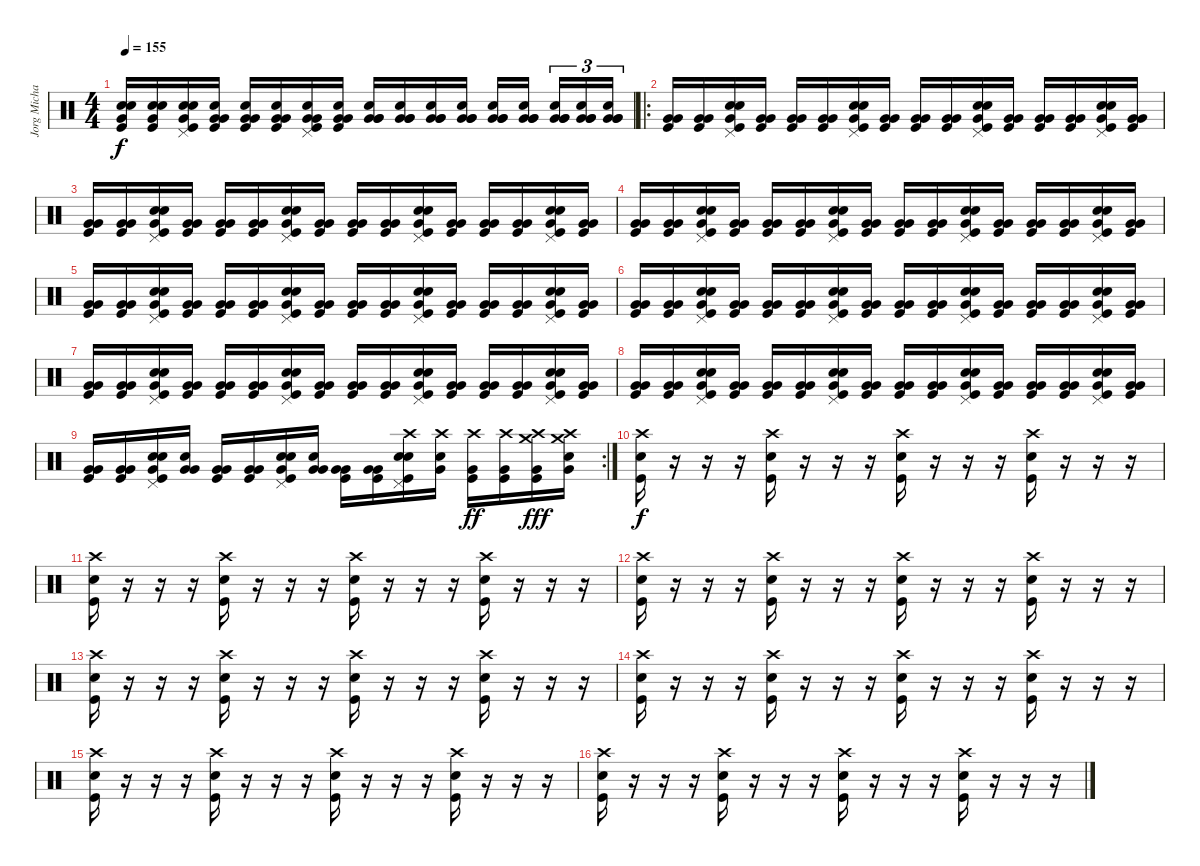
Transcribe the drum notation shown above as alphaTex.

\track ("Jorg Michael" "Jorg Micha") {instrument percussion}
\staff {score}
\articulation defaults
\ts (4 4)
\tempo 155
\clef neutral
\ks c
("Snare (hit) 2" "Snare (hit) 2" "Very Low Tom (hit)" "Kick (hit)").16{dy f} ("Snare (hit) 2" "Snare (hit) 2" "Very Low Tom (hit)" "Kick (hit)").16 ("Snare (hit) 2" "Snare (hit) 2" "Pedal Hi-Hat (hit)" "Very Low Tom (hit)" "Kick (hit)").16 ("Very Low Tom (hit)" "Snare (hit) 2" "Very Low Tom (hit)" "Kick (hit)").16 ("Very Low Tom (hit)" "Snare (hit) 2" "Very Low Tom (hit)" "Kick (hit)").16 ("Very Low Tom (hit)" "Snare (hit) 2" "Very Low Tom (hit)" "Kick (hit)").16 ("Very Low Tom (hit)" "Snare (hit) 2" "Pedal Hi-Hat (hit)" "Very Low Tom (hit)" "Kick (hit)").16 ("Very Low Tom (hit)" "Snare (hit) 2" "Very Low Tom (hit)" "Kick (hit)").16 ("Very Low Tom (hit)" "Snare (hit) 2" "Very Low Tom (hit)" "Very Low Tom (hit)").16 ("Very Low Tom (hit)" "Snare (hit) 2" "Very Low Tom (hit)" "Very Low Tom (hit)").16 ("Very Low Tom (hit)" "Snare (hit) 2" "Very Low Tom (hit)" "Very Low Tom (hit)").16 ("Very Low Tom (hit)" "Snare (hit) 2" "Very Low Tom (hit)" "Very Low Tom (hit)").16 ("Very Low Tom (hit)" "Snare (hit) 2" "Very Low Tom (hit)" "Very Low Tom (hit)").16 ("Very Low Tom (hit)" "Snare (hit) 2" "Very Low Tom (hit)" "Very Low Tom (hit)").16 ("Very Low Tom (hit)" "Snare (hit) 2" "Very Low Tom (hit)" "Very Low Tom (hit)").16{tu (3 2)} ("Very Low Tom (hit)" "Snare (hit) 2" "Very Low Tom (hit)" "Very Low Tom (hit)").16{tu (3 2)} ("Very Low Tom (hit)" "Snare (hit) 2" "Very Low Tom (hit)" "Very Low Tom (hit)").16{tu (3 2)} |
\ro
("Very Low Tom (hit)" "Very Low Tom (hit)" "Kick (hit)").16 ("Very Low Tom (hit)" "Very Low Tom (hit)" "Kick (hit)").16 ("Snare (hit) 2" "Snare (hit) 2" "Pedal Hi-Hat (hit)" "Very Low Tom (hit)" "Kick (hit)").16 ("Very Low Tom (hit)" "Very Low Tom (hit)" "Kick (hit)").16 ("Very Low Tom (hit)" "Very Low Tom (hit)" "Kick (hit)").16 ("Very Low Tom (hit)" "Very Low Tom (hit)" "Kick (hit)").16 ("Snare (hit) 2" "Snare (hit) 2" "Pedal Hi-Hat (hit)" "Very Low Tom (hit)" "Kick (hit)").16 ("Very Low Tom (hit)" "Very Low Tom (hit)" "Kick (hit)").16 ("Very Low Tom (hit)" "Very Low Tom (hit)" "Kick (hit)").16 ("Very Low Tom (hit)" "Very Low Tom (hit)" "Kick (hit)").16 ("Snare (hit) 2" "Snare (hit) 2" "Pedal Hi-Hat (hit)" "Very Low Tom (hit)" "Kick (hit)").16 ("Very Low Tom (hit)" "Very Low Tom (hit)" "Kick (hit)").16 ("Very Low Tom (hit)" "Very Low Tom (hit)" "Kick (hit)").16 ("Very Low Tom (hit)" "Very Low Tom (hit)" "Kick (hit)").16 ("Snare (hit) 2" "Snare (hit) 2" "Pedal Hi-Hat (hit)" "Very Low Tom (hit)" "Kick (hit)").16 ("Very Low Tom (hit)" "Very Low Tom (hit)" "Kick (hit)").16 |
("Very Low Tom (hit)" "Very Low Tom (hit)" "Kick (hit)").16 ("Very Low Tom (hit)" "Very Low Tom (hit)" "Kick (hit)").16 ("Snare (hit) 2" "Snare (hit) 2" "Pedal Hi-Hat (hit)" "Very Low Tom (hit)" "Kick (hit)").16 ("Very Low Tom (hit)" "Very Low Tom (hit)" "Kick (hit)").16 ("Very Low Tom (hit)" "Very Low Tom (hit)" "Kick (hit)").16 ("Very Low Tom (hit)" "Very Low Tom (hit)" "Kick (hit)").16 ("Snare (hit) 2" "Snare (hit) 2" "Pedal Hi-Hat (hit)" "Very Low Tom (hit)" "Kick (hit)").16 ("Very Low Tom (hit)" "Very Low Tom (hit)" "Kick (hit)").16 ("Very Low Tom (hit)" "Very Low Tom (hit)" "Kick (hit)").16 ("Very Low Tom (hit)" "Very Low Tom (hit)" "Kick (hit)").16 ("Snare (hit) 2" "Snare (hit) 2" "Pedal Hi-Hat (hit)" "Very Low Tom (hit)" "Kick (hit)").16 ("Very Low Tom (hit)" "Very Low Tom (hit)" "Kick (hit)").16 ("Very Low Tom (hit)" "Very Low Tom (hit)" "Kick (hit)").16 ("Very Low Tom (hit)" "Very Low Tom (hit)" "Kick (hit)").16 ("Snare (hit) 2" "Snare (hit) 2" "Pedal Hi-Hat (hit)" "Very Low Tom (hit)" "Kick (hit)").16 ("Very Low Tom (hit)" "Very Low Tom (hit)" "Kick (hit)").16 |
("Very Low Tom (hit)" "Very Low Tom (hit)" "Kick (hit)").16 ("Very Low Tom (hit)" "Very Low Tom (hit)" "Kick (hit)").16 ("Snare (hit) 2" "Snare (hit) 2" "Pedal Hi-Hat (hit)" "Very Low Tom (hit)" "Kick (hit)").16 ("Very Low Tom (hit)" "Very Low Tom (hit)" "Kick (hit)").16 ("Very Low Tom (hit)" "Very Low Tom (hit)" "Kick (hit)").16 ("Very Low Tom (hit)" "Very Low Tom (hit)" "Kick (hit)").16 ("Snare (hit) 2" "Snare (hit) 2" "Pedal Hi-Hat (hit)" "Very Low Tom (hit)" "Kick (hit)").16 ("Very Low Tom (hit)" "Very Low Tom (hit)" "Kick (hit)").16 ("Very Low Tom (hit)" "Very Low Tom (hit)" "Kick (hit)").16 ("Very Low Tom (hit)" "Very Low Tom (hit)" "Kick (hit)").16 ("Snare (hit) 2" "Snare (hit) 2" "Pedal Hi-Hat (hit)" "Very Low Tom (hit)" "Kick (hit)").16 ("Very Low Tom (hit)" "Very Low Tom (hit)" "Kick (hit)").16 ("Very Low Tom (hit)" "Very Low Tom (hit)" "Kick (hit)").16 ("Very Low Tom (hit)" "Very Low Tom (hit)" "Kick (hit)").16 ("Snare (hit) 2" "Snare (hit) 2" "Pedal Hi-Hat (hit)" "Very Low Tom (hit)" "Kick (hit)").16 ("Very Low Tom (hit)" "Very Low Tom (hit)" "Kick (hit)").16 |
("Very Low Tom (hit)" "Very Low Tom (hit)" "Kick (hit)").16 ("Very Low Tom (hit)" "Very Low Tom (hit)" "Kick (hit)").16 ("Snare (hit) 2" "Snare (hit) 2" "Pedal Hi-Hat (hit)" "Very Low Tom (hit)" "Kick (hit)").16 ("Very Low Tom (hit)" "Very Low Tom (hit)" "Kick (hit)").16 ("Very Low Tom (hit)" "Very Low Tom (hit)" "Kick (hit)").16 ("Very Low Tom (hit)" "Very Low Tom (hit)" "Kick (hit)").16 ("Snare (hit) 2" "Snare (hit) 2" "Pedal Hi-Hat (hit)" "Very Low Tom (hit)" "Kick (hit)").16 ("Very Low Tom (hit)" "Very Low Tom (hit)" "Kick (hit)").16 ("Very Low Tom (hit)" "Very Low Tom (hit)" "Kick (hit)").16 ("Very Low Tom (hit)" "Very Low Tom (hit)" "Kick (hit)").16 ("Snare (hit) 2" "Snare (hit) 2" "Pedal Hi-Hat (hit)" "Very Low Tom (hit)" "Kick (hit)").16 ("Very Low Tom (hit)" "Very Low Tom (hit)" "Kick (hit)").16 ("Very Low Tom (hit)" "Very Low Tom (hit)" "Kick (hit)").16 ("Very Low Tom (hit)" "Very Low Tom (hit)" "Kick (hit)").16 ("Snare (hit) 2" "Snare (hit) 2" "Pedal Hi-Hat (hit)" "Very Low Tom (hit)" "Kick (hit)").16 ("Very Low Tom (hit)" "Very Low Tom (hit)" "Kick (hit)").16 |
("Very Low Tom (hit)" "Very Low Tom (hit)" "Kick (hit)").16 ("Very Low Tom (hit)" "Very Low Tom (hit)" "Kick (hit)").16 ("Snare (hit) 2" "Snare (hit) 2" "Pedal Hi-Hat (hit)" "Very Low Tom (hit)" "Kick (hit)").16 ("Very Low Tom (hit)" "Very Low Tom (hit)" "Kick (hit)").16 ("Very Low Tom (hit)" "Very Low Tom (hit)" "Kick (hit)").16 ("Very Low Tom (hit)" "Very Low Tom (hit)" "Kick (hit)").16 ("Snare (hit) 2" "Snare (hit) 2" "Pedal Hi-Hat (hit)" "Very Low Tom (hit)" "Kick (hit)").16 ("Very Low Tom (hit)" "Very Low Tom (hit)" "Kick (hit)").16 ("Very Low Tom (hit)" "Very Low Tom (hit)" "Kick (hit)").16 ("Very Low Tom (hit)" "Very Low Tom (hit)" "Kick (hit)").16 ("Snare (hit) 2" "Snare (hit) 2" "Pedal Hi-Hat (hit)" "Very Low Tom (hit)" "Kick (hit)").16 ("Very Low Tom (hit)" "Very Low Tom (hit)" "Kick (hit)").16 ("Very Low Tom (hit)" "Very Low Tom (hit)" "Kick (hit)").16 ("Very Low Tom (hit)" "Very Low Tom (hit)" "Kick (hit)").16 ("Snare (hit) 2" "Snare (hit) 2" "Pedal Hi-Hat (hit)" "Very Low Tom (hit)" "Kick (hit)").16 ("Very Low Tom (hit)" "Very Low Tom (hit)" "Kick (hit)").16 |
("Very Low Tom (hit)" "Very Low Tom (hit)" "Kick (hit)").16 ("Very Low Tom (hit)" "Very Low Tom (hit)" "Kick (hit)").16 ("Snare (hit) 2" "Snare (hit) 2" "Pedal Hi-Hat (hit)" "Very Low Tom (hit)" "Kick (hit)").16 ("Very Low Tom (hit)" "Very Low Tom (hit)" "Kick (hit)").16 ("Very Low Tom (hit)" "Very Low Tom (hit)" "Kick (hit)").16 ("Very Low Tom (hit)" "Very Low Tom (hit)" "Kick (hit)").16 ("Snare (hit) 2" "Snare (hit) 2" "Pedal Hi-Hat (hit)" "Very Low Tom (hit)" "Kick (hit)").16 ("Very Low Tom (hit)" "Very Low Tom (hit)" "Kick (hit)").16 ("Very Low Tom (hit)" "Very Low Tom (hit)" "Kick (hit)").16 ("Very Low Tom (hit)" "Very Low Tom (hit)" "Kick (hit)").16 ("Snare (hit) 2" "Snare (hit) 2" "Pedal Hi-Hat (hit)" "Very Low Tom (hit)" "Kick (hit)").16 ("Very Low Tom (hit)" "Very Low Tom (hit)" "Kick (hit)").16 ("Very Low Tom (hit)" "Very Low Tom (hit)" "Kick (hit)").16 ("Very Low Tom (hit)" "Very Low Tom (hit)" "Kick (hit)").16 ("Snare (hit) 2" "Snare (hit) 2" "Pedal Hi-Hat (hit)" "Very Low Tom (hit)" "Kick (hit)").16 ("Very Low Tom (hit)" "Very Low Tom (hit)" "Kick (hit)").16 |
("Very Low Tom (hit)" "Very Low Tom (hit)" "Kick (hit)").16 ("Very Low Tom (hit)" "Very Low Tom (hit)" "Kick (hit)").16 ("Snare (hit) 2" "Snare (hit) 2" "Pedal Hi-Hat (hit)" "Very Low Tom (hit)" "Kick (hit)").16 ("Very Low Tom (hit)" "Very Low Tom (hit)" "Kick (hit)").16 ("Very Low Tom (hit)" "Very Low Tom (hit)" "Kick (hit)").16 ("Very Low Tom (hit)" "Very Low Tom (hit)" "Kick (hit)").16 ("Snare (hit) 2" "Snare (hit) 2" "Pedal Hi-Hat (hit)" "Very Low Tom (hit)" "Kick (hit)").16 ("Very Low Tom (hit)" "Very Low Tom (hit)" "Kick (hit)").16 ("Very Low Tom (hit)" "Very Low Tom (hit)" "Kick (hit)").16 ("Very Low Tom (hit)" "Very Low Tom (hit)" "Kick (hit)").16 ("Snare (hit) 2" "Snare (hit) 2" "Pedal Hi-Hat (hit)" "Very Low Tom (hit)" "Kick (hit)").16 ("Very Low Tom (hit)" "Very Low Tom (hit)" "Kick (hit)").16 ("Very Low Tom (hit)" "Very Low Tom (hit)" "Kick (hit)").16 ("Very Low Tom (hit)" "Very Low Tom (hit)" "Kick (hit)").16 ("Snare (hit) 2" "Snare (hit) 2" "Pedal Hi-Hat (hit)" "Very Low Tom (hit)" "Kick (hit)").16 ("Very Low Tom (hit)" "Very Low Tom (hit)" "Kick (hit)").16 |
\rc 2
("Very Low Tom (hit)" "Very Low Tom (hit)" "Kick (hit)").16 ("Very Low Tom (hit)" "Very Low Tom (hit)" "Kick (hit)").16 ("Snare (hit) 2" "Snare (hit) 2" "Pedal Hi-Hat (hit)" "Very Low Tom (hit)" "Kick (hit)").16 ("Very Low Tom (hit)" "Very Low Tom (hit)" "Snare (hit) 2").16 ("Very Low Tom (hit)" "Very Low Tom (hit)" "Kick (hit)").16 ("Very Low Tom (hit)" "Very Low Tom (hit)" "Kick (hit)").16 ("Snare (hit) 2" "Snare (hit) 2" "Pedal Hi-Hat (hit)" "Very Low Tom (hit)" "Kick (hit)").16 ("Very Low Tom (hit)" "Very Low Tom (hit)" "Snare (hit) 2").16 ("Very Low Tom (hit)" "Very Low Tom (hit)" "Kick (hit)").16 ("Very Low Tom (hit)" "Very Low Tom (hit)" "Kick (hit)").16 ("Snare (hit) 2" "Snare (hit) 2" "Pedal Hi-Hat (hit)" "Crash high (hit)" "Kick (hit)").16 ("Very Low Tom (hit)" "Crash high (hit)" "Snare (hit) 2").16 ("Very Low Tom (hit)" "Crash high (hit)" "Kick (hit)").16{dy ff} ("Very Low Tom (hit)" "Crash high (hit)" "Kick (hit)").16 ("Very Low Tom (hit)" "Crash medium (hit)" "Crash high (hit)" "Kick (hit)").16{dy fff} ("Very Low Tom (hit)" "Crash medium (hit)" "Crash high (hit)" "Snare (hit) 2").16 |
("Crash high (hit)" "Snare (hit) 2" "Kick (hit)").16{dy f} r.16 r.16 r.16 ("Crash high (hit)" "Snare (hit) 2" "Kick (hit)").16 r.16 r.16 r.16 ("Crash high (hit)" "Snare (hit) 2" "Kick (hit)").16 r.16 r.16 r.16 ("Crash high (hit)" "Snare (hit) 2" "Kick (hit)").16 r.16 r.16 r.16 |
("Crash high (hit)" "Snare (hit) 2" "Kick (hit)").16 r.16 r.16 r.16 ("Crash high (hit)" "Snare (hit) 2" "Kick (hit)").16 r.16 r.16 r.16 ("Crash high (hit)" "Snare (hit) 2" "Kick (hit)").16 r.16 r.16 r.16 ("Crash high (hit)" "Snare (hit) 2" "Kick (hit)").16 r.16 r.16 r.16 |
("Crash high (hit)" "Snare (hit) 2" "Kick (hit)").16 r.16 r.16 r.16 ("Crash high (hit)" "Snare (hit) 2" "Kick (hit)").16 r.16 r.16 r.16 ("Crash high (hit)" "Snare (hit) 2" "Kick (hit)").16 r.16 r.16 r.16 ("Crash high (hit)" "Snare (hit) 2" "Kick (hit)").16 r.16 r.16 r.16 |
("Crash high (hit)" "Snare (hit) 2" "Kick (hit)").16 r.16 r.16 r.16 ("Crash high (hit)" "Snare (hit) 2" "Kick (hit)").16 r.16 r.16 r.16 ("Crash high (hit)" "Snare (hit) 2" "Kick (hit)").16 r.16 r.16 r.16 ("Crash high (hit)" "Snare (hit) 2" "Kick (hit)").16 r.16 r.16 r.16 |
("Crash high (hit)" "Snare (hit) 2" "Kick (hit)").16 r.16 r.16 r.16 ("Crash high (hit)" "Snare (hit) 2" "Kick (hit)").16 r.16 r.16 r.16 ("Crash high (hit)" "Snare (hit) 2" "Kick (hit)").16 r.16 r.16 r.16 ("Crash high (hit)" "Snare (hit) 2" "Kick (hit)").16 r.16 r.16 r.16 |
("Crash high (hit)" "Snare (hit) 2" "Kick (hit)").16 r.16 r.16 r.16 ("Crash high (hit)" "Snare (hit) 2" "Kick (hit)").16 r.16 r.16 r.16 ("Crash high (hit)" "Snare (hit) 2" "Kick (hit)").16 r.16 r.16 r.16 ("Crash high (hit)" "Snare (hit) 2" "Kick (hit)").16 r.16 r.16 r.16 |
("Crash high (hit)" "Snare (hit) 2" "Kick (hit)").16 r.16 r.16 r.16 ("Crash high (hit)" "Snare (hit) 2" "Kick (hit)").16 r.16 r.16 r.16 ("Crash high (hit)" "Snare (hit) 2" "Kick (hit)").16 r.16 r.16 r.16 ("Crash high (hit)" "Snare (hit) 2" "Kick (hit)").16 r.16 r.16 r.16
